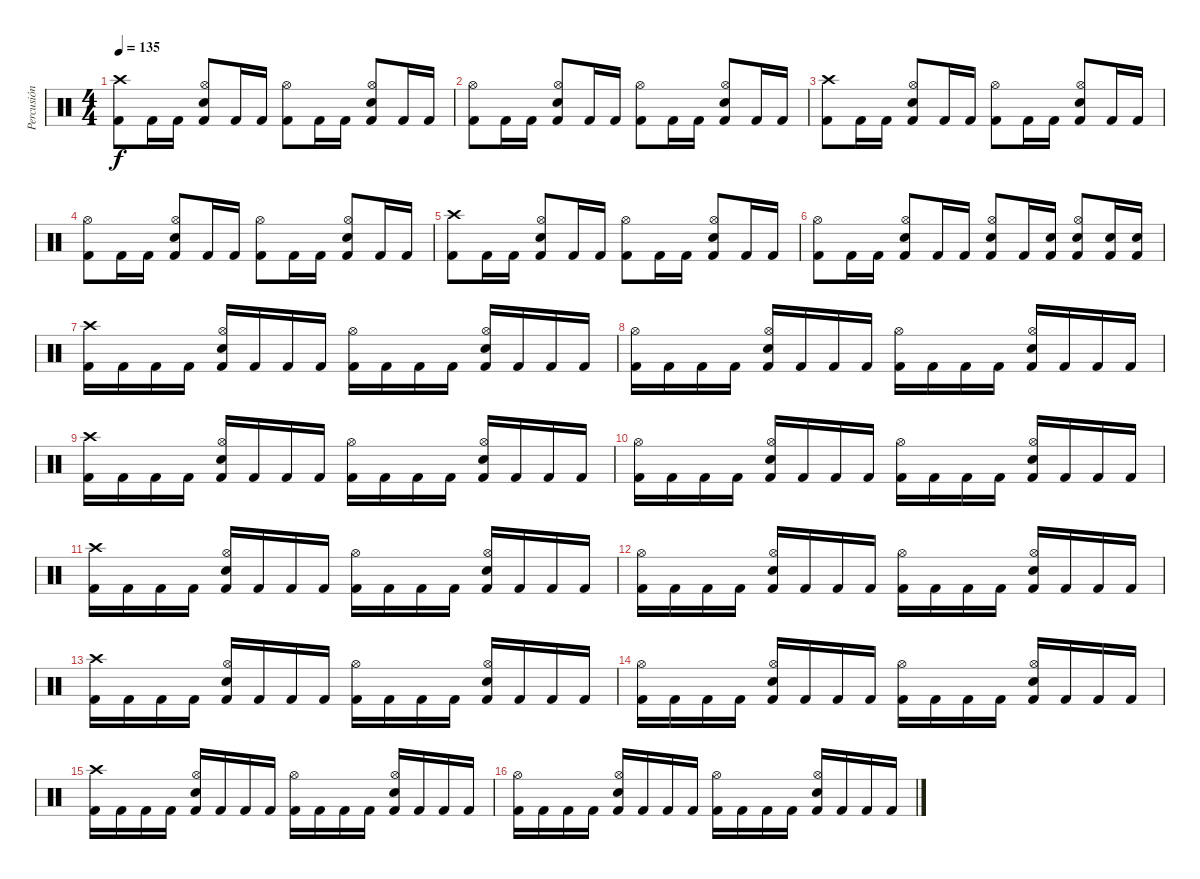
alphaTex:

\track ("Percusión" "Percusión") {instrument percussion}
\staff {score}
\articulation defaults
\ts (4 4)
\tempo 135
\clef neutral
\ks c
("Kick (hit) 2" "Crash high (hit)").8{dy f} "Kick (hit) 2".16 "Kick (hit) 2".16 ("Kick (hit) 2" "Hi-Hat (open)" "Snare (hit) 2").8 "Kick (hit) 2".16 "Kick (hit) 2".16 ("Kick (hit) 2" "Hi-Hat (open)").8 "Kick (hit) 2".16 "Kick (hit) 2".16 ("Kick (hit) 2" "Hi-Hat (open)" "Snare (hit) 2").8 "Kick (hit) 2".16 "Kick (hit) 2".16 |
("Kick (hit) 2" "Hi-Hat (open)").8 "Kick (hit) 2".16 "Kick (hit) 2".16 ("Kick (hit) 2" "Hi-Hat (open)" "Snare (hit) 2").8 "Kick (hit) 2".16 "Kick (hit) 2".16 ("Kick (hit) 2" "Hi-Hat (open)").8 "Kick (hit) 2".16 "Kick (hit) 2".16 ("Kick (hit) 2" "Hi-Hat (open)" "Snare (hit) 2").8 "Kick (hit) 2".16 "Kick (hit) 2".16 |
("Kick (hit) 2" "Crash high (hit)").8 "Kick (hit) 2".16 "Kick (hit) 2".16 ("Kick (hit) 2" "Hi-Hat (open)" "Snare (hit) 2").8 "Kick (hit) 2".16 "Kick (hit) 2".16 ("Kick (hit) 2" "Hi-Hat (open)").8 "Kick (hit) 2".16 "Kick (hit) 2".16 ("Kick (hit) 2" "Hi-Hat (open)" "Snare (hit) 2").8 "Kick (hit) 2".16 "Kick (hit) 2".16 |
("Kick (hit) 2" "Hi-Hat (open)").8 "Kick (hit) 2".16 "Kick (hit) 2".16 ("Kick (hit) 2" "Hi-Hat (open)" "Snare (hit) 2").8 "Kick (hit) 2".16 "Kick (hit) 2".16 ("Kick (hit) 2" "Hi-Hat (open)").8 "Kick (hit) 2".16 "Kick (hit) 2".16 ("Kick (hit) 2" "Hi-Hat (open)" "Snare (hit) 2").8 "Kick (hit) 2".16 "Kick (hit) 2".16 |
("Kick (hit) 2" "Crash high (hit)").8 "Kick (hit) 2".16 "Kick (hit) 2".16 ("Kick (hit) 2" "Hi-Hat (open)" "Snare (hit) 2").8 "Kick (hit) 2".16 "Kick (hit) 2".16 ("Kick (hit) 2" "Hi-Hat (open)").8 "Kick (hit) 2".16 "Kick (hit) 2".16 ("Kick (hit) 2" "Hi-Hat (open)" "Snare (hit) 2").8 "Kick (hit) 2".16 "Kick (hit) 2".16 |
("Kick (hit) 2" "Hi-Hat (open)").8 "Kick (hit) 2".16 "Kick (hit) 2".16 ("Kick (hit) 2" "Hi-Hat (open)" "Snare (hit) 2").8 "Kick (hit) 2".16 "Kick (hit) 2".16 ("Kick (hit) 2" "Hi-Hat (open)" "Snare (hit) 2").8 "Kick (hit) 2".16 ("Kick (hit) 2" "Snare (hit) 2").16 ("Kick (hit) 2" "Hi-Hat (open)" "Snare (hit) 2").8 ("Kick (hit) 2" "Snare (hit) 2").16 ("Kick (hit) 2" "Snare (hit) 2").16 |
("Kick (hit) 2" "Crash high (hit)").16 "Kick (hit) 2".16 "Kick (hit) 2".16 "Kick (hit) 2".16 ("Kick (hit) 2" "Hi-Hat (open)" "Snare (hit) 2").16 "Kick (hit) 2".16 "Kick (hit) 2".16 "Kick (hit) 2".16 ("Kick (hit) 2" "Hi-Hat (open)").16 "Kick (hit) 2".16 "Kick (hit) 2".16 "Kick (hit) 2".16 ("Kick (hit) 2" "Hi-Hat (open)" "Snare (hit) 2").16 "Kick (hit) 2".16 "Kick (hit) 2".16 "Kick (hit) 2".16 |
("Kick (hit) 2" "Hi-Hat (open)").16 "Kick (hit) 2".16 "Kick (hit) 2".16 "Kick (hit) 2".16 ("Kick (hit) 2" "Hi-Hat (open)" "Snare (hit) 2").16 "Kick (hit) 2".16 "Kick (hit) 2".16 "Kick (hit) 2".16 ("Kick (hit) 2" "Hi-Hat (open)").16 "Kick (hit) 2".16 "Kick (hit) 2".16 "Kick (hit) 2".16 ("Kick (hit) 2" "Hi-Hat (open)" "Snare (hit) 2").16 "Kick (hit) 2".16 "Kick (hit) 2".16 "Kick (hit) 2".16 |
("Kick (hit) 2" "Crash high (hit)").16 "Kick (hit) 2".16 "Kick (hit) 2".16 "Kick (hit) 2".16 ("Kick (hit) 2" "Hi-Hat (open)" "Snare (hit) 2").16 "Kick (hit) 2".16 "Kick (hit) 2".16 "Kick (hit) 2".16 ("Kick (hit) 2" "Hi-Hat (open)").16 "Kick (hit) 2".16 "Kick (hit) 2".16 "Kick (hit) 2".16 ("Kick (hit) 2" "Hi-Hat (open)" "Snare (hit) 2").16 "Kick (hit) 2".16 "Kick (hit) 2".16 "Kick (hit) 2".16 |
("Kick (hit) 2" "Hi-Hat (open)").16 "Kick (hit) 2".16 "Kick (hit) 2".16 "Kick (hit) 2".16 ("Kick (hit) 2" "Hi-Hat (open)" "Snare (hit) 2").16 "Kick (hit) 2".16 "Kick (hit) 2".16 "Kick (hit) 2".16 ("Kick (hit) 2" "Hi-Hat (open)").16 "Kick (hit) 2".16 "Kick (hit) 2".16 "Kick (hit) 2".16 ("Kick (hit) 2" "Hi-Hat (open)" "Snare (hit) 2").16 "Kick (hit) 2".16 "Kick (hit) 2".16 "Kick (hit) 2".16 |
("Kick (hit) 2" "Crash high (hit)").16 "Kick (hit) 2".16 "Kick (hit) 2".16 "Kick (hit) 2".16 ("Kick (hit) 2" "Hi-Hat (open)" "Snare (hit) 2").16 "Kick (hit) 2".16 "Kick (hit) 2".16 "Kick (hit) 2".16 ("Kick (hit) 2" "Hi-Hat (open)").16 "Kick (hit) 2".16 "Kick (hit) 2".16 "Kick (hit) 2".16 ("Kick (hit) 2" "Hi-Hat (open)" "Snare (hit) 2").16 "Kick (hit) 2".16 "Kick (hit) 2".16 "Kick (hit) 2".16 |
("Kick (hit) 2" "Hi-Hat (open)").16 "Kick (hit) 2".16 "Kick (hit) 2".16 "Kick (hit) 2".16 ("Kick (hit) 2" "Hi-Hat (open)" "Snare (hit) 2").16 "Kick (hit) 2".16 "Kick (hit) 2".16 "Kick (hit) 2".16 ("Kick (hit) 2" "Hi-Hat (open)").16 "Kick (hit) 2".16 "Kick (hit) 2".16 "Kick (hit) 2".16 ("Kick (hit) 2" "Hi-Hat (open)" "Snare (hit) 2").16 "Kick (hit) 2".16 "Kick (hit) 2".16 "Kick (hit) 2".16 |
("Kick (hit) 2" "Crash high (hit)").16 "Kick (hit) 2".16 "Kick (hit) 2".16 "Kick (hit) 2".16 ("Kick (hit) 2" "Hi-Hat (open)" "Snare (hit) 2").16 "Kick (hit) 2".16 "Kick (hit) 2".16 "Kick (hit) 2".16 ("Kick (hit) 2" "Hi-Hat (open)").16 "Kick (hit) 2".16 "Kick (hit) 2".16 "Kick (hit) 2".16 ("Kick (hit) 2" "Hi-Hat (open)" "Snare (hit) 2").16 "Kick (hit) 2".16 "Kick (hit) 2".16 "Kick (hit) 2".16 |
("Kick (hit) 2" "Hi-Hat (open)").16 "Kick (hit) 2".16 "Kick (hit) 2".16 "Kick (hit) 2".16 ("Kick (hit) 2" "Hi-Hat (open)" "Snare (hit) 2").16 "Kick (hit) 2".16 "Kick (hit) 2".16 "Kick (hit) 2".16 ("Kick (hit) 2" "Hi-Hat (open)").16 "Kick (hit) 2".16 "Kick (hit) 2".16 "Kick (hit) 2".16 ("Kick (hit) 2" "Hi-Hat (open)" "Snare (hit) 2").16 "Kick (hit) 2".16 "Kick (hit) 2".16 "Kick (hit) 2".16 |
("Kick (hit) 2" "Crash high (hit)").16 "Kick (hit) 2".16 "Kick (hit) 2".16 "Kick (hit) 2".16 ("Kick (hit) 2" "Hi-Hat (open)" "Snare (hit) 2").16 "Kick (hit) 2".16 "Kick (hit) 2".16 "Kick (hit) 2".16 ("Kick (hit) 2" "Hi-Hat (open)").16 "Kick (hit) 2".16 "Kick (hit) 2".16 "Kick (hit) 2".16 ("Kick (hit) 2" "Hi-Hat (open)" "Snare (hit) 2").16 "Kick (hit) 2".16 "Kick (hit) 2".16 "Kick (hit) 2".16 |
("Kick (hit) 2" "Hi-Hat (open)").16 "Kick (hit) 2".16 "Kick (hit) 2".16 "Kick (hit) 2".16 ("Kick (hit) 2" "Hi-Hat (open)" "Snare (hit) 2").16 "Kick (hit) 2".16 "Kick (hit) 2".16 "Kick (hit) 2".16 ("Kick (hit) 2" "Hi-Hat (open)").16 "Kick (hit) 2".16 "Kick (hit) 2".16 "Kick (hit) 2".16 ("Kick (hit) 2" "Hi-Hat (open)" "Snare (hit) 2").16 "Kick (hit) 2".16 "Kick (hit) 2".16 "Kick (hit) 2".16
